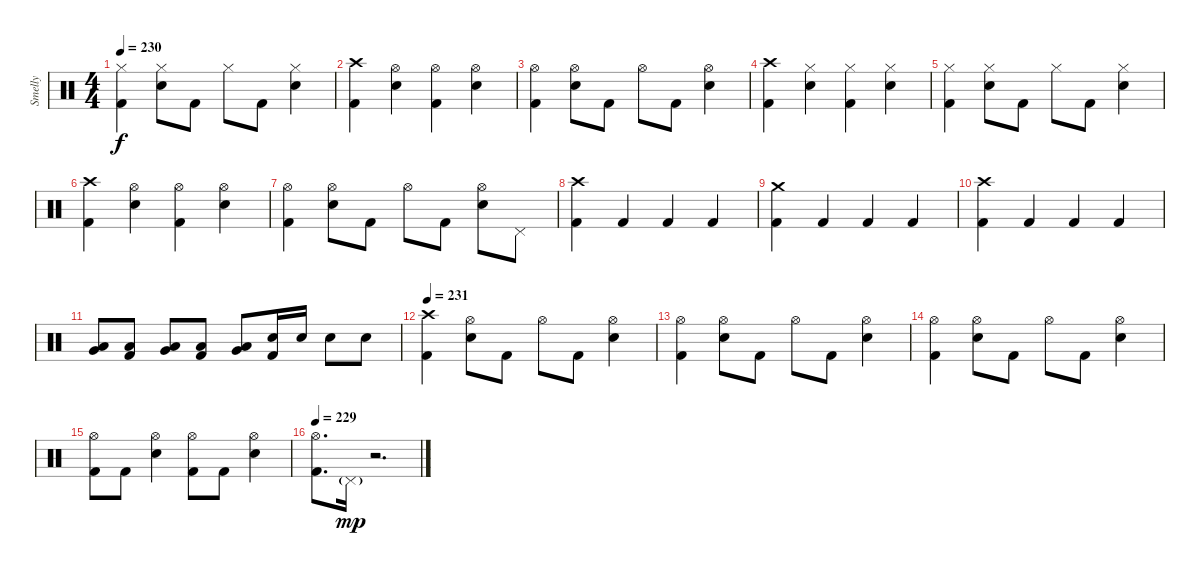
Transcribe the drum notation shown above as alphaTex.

\track ("Smelly" "Smelly") {instrument percussion}
\staff {score}
\articulation defaults
\ts (4 4)
\tempo 230
\clef neutral
\ks c
("Hi-Hat (closed)" "Kick (hit) 2").4{dy f} ("Hi-Hat (closed)" "Electric Snare (hit)").8 "Kick (hit) 2".8 "Hi-Hat (closed)".8 "Kick (hit) 2".8 ("Hi-Hat (closed)" "Electric Snare (hit)").4 |
("Crash high (hit)" "Kick (hit) 2").4 ("Hi-Hat (open)" "Electric Snare (hit)").4 ("Hi-Hat (open)" "Kick (hit) 2").4 ("Hi-Hat (open)" "Electric Snare (hit)").4 |
("Hi-Hat (open)" "Kick (hit) 2").4 ("Hi-Hat (open)" "Electric Snare (hit)").8 "Kick (hit) 2".8 "Hi-Hat (open)".8 "Kick (hit) 2".8 ("Hi-Hat (open)" "Electric Snare (hit)").4 |
("Crash high (hit)" "Kick (hit) 2").4 ("Hi-Hat (closed)" "Electric Snare (hit)").4 ("Hi-Hat (closed)" "Kick (hit) 2").4 ("Hi-Hat (closed)" "Electric Snare (hit)").4 |
("Hi-Hat (closed)" "Kick (hit) 2").4 ("Hi-Hat (closed)" "Electric Snare (hit)").8 "Kick (hit) 2".8 "Hi-Hat (closed)".8 "Kick (hit) 2".8 ("Hi-Hat (closed)" "Electric Snare (hit)").4 |
("Crash high (hit)" "Kick (hit) 2").4 ("Hi-Hat (open)" "Electric Snare (hit)").4 ("Hi-Hat (open)" "Kick (hit) 2").4 ("Hi-Hat (open)" "Electric Snare (hit)").4 |
("Hi-Hat (open)" "Kick (hit) 2").4 ("Hi-Hat (open)" "Electric Snare (hit)").8 "Kick (hit) 2".8 "Hi-Hat (open)".8 "Kick (hit) 2".8 ("Hi-Hat (open)" "Electric Snare (hit)").8 "Pedal Hi-Hat (hit)".8 |
("Crash high (hit)" "Kick (hit) 2").4 "Kick (hit) 2".4 "Kick (hit) 2".4 "Kick (hit) 2".4 |
("Crash medium (hit)" "Kick (hit) 2").4 "Kick (hit) 2".4 "Kick (hit) 2".4 "Kick (hit) 2".4 |
("Crash high (hit)" "Kick (hit) 2").4 "Kick (hit) 2".4 "Kick (hit) 2".4 "Kick (hit) 2".4 |
("Very Low Tom (hit)" "Low Floor Tom (hit)").8 ("Low Floor Tom (hit)" "Kick (hit) 2").8 ("Very Low Tom (hit)" "Low Floor Tom (hit)").8 ("Low Floor Tom (hit)" "Kick (hit) 2").8 ("Very Low Tom (hit)" "Low Floor Tom (hit)").8 ("Electric Snare (hit)" "Kick (hit) 2").16 "Electric Snare (hit)".16 "Electric Snare (hit)".8 "Electric Snare (hit)".8 |
\tempo 231
("Crash high (hit)" "Kick (hit) 2").4 ("Hi-Hat (open)" "Electric Snare (hit)").8 "Kick (hit) 2".8 "Hi-Hat (open)".8 "Kick (hit) 2".8 ("Hi-Hat (open)" "Electric Snare (hit)").4 |
("Hi-Hat (open)" "Kick (hit) 2").4 ("Hi-Hat (open)" "Electric Snare (hit)").8 "Kick (hit) 2".8 "Hi-Hat (open)".8 "Kick (hit) 2".8 ("Hi-Hat (open)" "Electric Snare (hit)").4 |
("Hi-Hat (open)" "Kick (hit) 2").4 ("Hi-Hat (open)" "Electric Snare (hit)").8 "Kick (hit) 2".8 "Hi-Hat (open)".8 "Kick (hit) 2".8 ("Hi-Hat (open)" "Electric Snare (hit)").4 |
("Hi-Hat (open)" "Kick (hit) 2").8 "Kick (hit) 2".8 ("Hi-Hat (open)" "Electric Snare (hit)").4 ("Hi-Hat (open)" "Kick (hit) 2").8 "Kick (hit) 2".8 ("Hi-Hat (open)" "Electric Snare (hit)").4 |
\tempo 229
("Hi-Hat (open)" "Kick (hit) 2").8{d} "Pedal Hi-Hat (hit)"{g}.16{dy mp} r.2{d}
